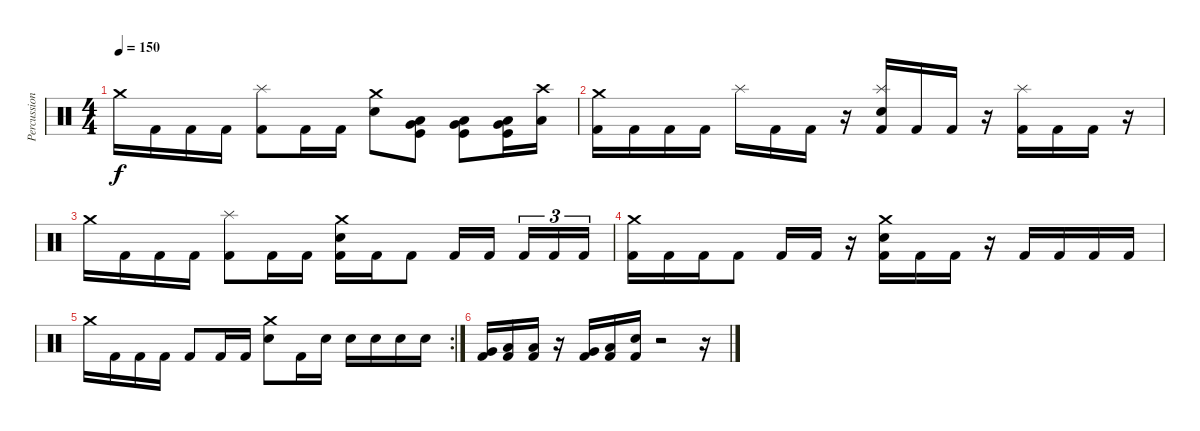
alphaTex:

\track ("Percussion" "Percussion") {instrument percussion}
\staff {score}
\articulation defaults
\ts (4 4)
\tempo 150
\clef neutral
\ks c "Crash medium (hit)".16{dy f} "Kick (hit) 2".16 "Kick (hit) 2".16 "Kick (hit) 2".16
("Splash (hit)" "Kick (hit) 2").8 "Kick (hit) 2".16 "Kick (hit) 2".16 ("Crash medium (hit)" "Electric Snare (hit)").8 ("Low Floor Tom (hit)" "Very Low Tom (hit)" "Kick (hit)").8 ("Low Floor Tom (hit)" "Very Low Tom (hit)" "Kick (hit)").8 ("Low Floor Tom (hit)" "Very Low Tom (hit)" "Kick (hit)").16 ("Crash high (hit)" "Low Floor Tom (hit)").16 |
("Crash medium (hit)" "Kick (hit) 2").16 "Kick (hit) 2".16 "Kick (hit) 2".16 "Kick (hit) 2".16 "Splash (hit)".16 "Kick (hit) 2".16 "Kick (hit) 2".16 r.16 ("Splash (hit)" "Electric Snare (hit)" "Kick (hit) 2").16 "Kick (hit) 2".16 "Kick (hit) 2".16 r.16 ("Splash (hit)" "Kick (hit) 2").16 "Kick (hit) 2".16 "Kick (hit) 2".16 r.16 |
"Crash medium (hit)".16 "Kick (hit) 2".16 "Kick (hit) 2".16 "Kick (hit) 2".16 ("Splash (hit)" "Kick (hit) 2").8 "Kick (hit) 2".16 "Kick (hit) 2".16 ("Crash medium (hit)" "Electric Snare (hit)" "Kick (hit) 2").16 "Kick (hit) 2".16 "Kick (hit) 2".8 "Kick (hit) 2".16 "Kick (hit) 2".16{beam splitsecondary} "Kick (hit) 2".16{tu (3 2)} "Kick (hit) 2".16{tu (3 2)} "Kick (hit) 2".16{tu (3 2)} |
("Crash medium (hit)" "Kick (hit) 2").16 "Kick (hit) 2".16 "Kick (hit) 2".16 "Kick (hit) 2".8 "Kick (hit) 2".16 "Kick (hit) 2".16 r.16 ("Crash medium (hit)" "Electric Snare (hit)" "Kick (hit) 2").16 "Kick (hit) 2".16 "Kick (hit) 2".16 r.16 "Kick (hit) 2".16 "Kick (hit) 2".16 "Kick (hit) 2".16 "Kick (hit) 2".16 |
\rc 2 "Crash medium (hit)".16 "Kick (hit) 2".16 "Kick (hit) 2".16 "Kick (hit) 2".16 "Kick (hit) 2".8 "Kick (hit) 2".16 "Kick (hit) 2".16
("Crash medium (hit)" "Electric Snare (hit)").8 "Kick (hit) 2".16 "Electric Snare (hit)".16 "Electric Snare (hit)".16 "Electric Snare (hit)".16 "Electric Snare (hit)".16 "Electric Snare (hit)".16 |
("Very Low Tom (hit)" "Kick (hit) 2").16 ("Low Floor Tom (hit)" "Kick (hit) 2").16 ("Low Floor Tom (hit)" "Kick (hit) 2").16 r.16 ("Very Low Tom (hit)" "Kick (hit) 2").16 ("Low Floor Tom (hit)" "Kick (hit) 2").16 ("Electric Snare (hit)" "Kick (hit) 2").16 r.2 r.16
